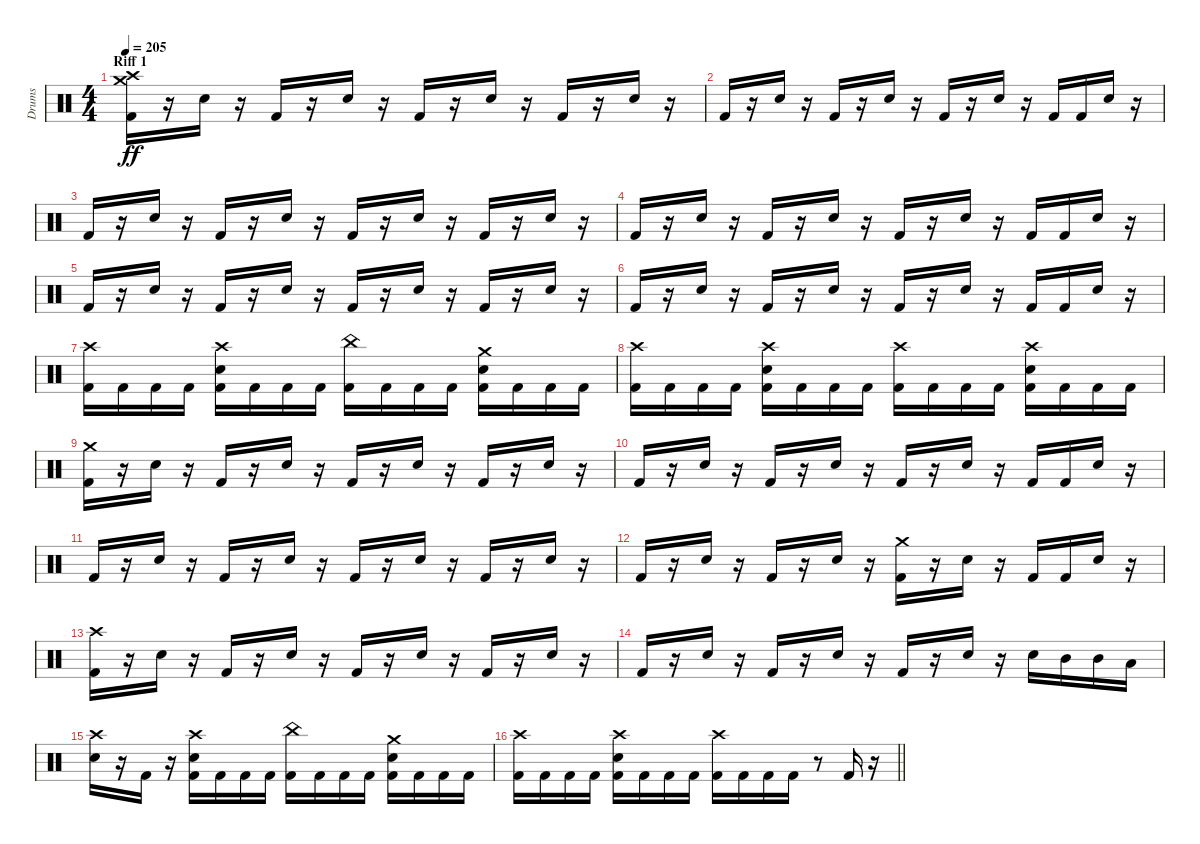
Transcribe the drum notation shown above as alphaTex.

\track ("Drums" "Drums") {instrument percussion}
\staff {score}
\articulation defaults
\ts (4 4)
\section ("" "Riff 1")
\tempo 205
\clef neutral
\ks c
("Crash high (hit)" "Crash medium (hit)" "Kick (hit) 2").16{dy ff} r.16 "Snare (hit) 2".16 r.16 "Kick (hit) 2".16 r.16 "Snare (hit) 2".16 r.16 "Kick (hit) 2".16 r.16 "Snare (hit) 2".16 r.16 "Kick (hit) 2".16 r.16 "Snare (hit) 2".16 r.16 |
"Kick (hit) 2".16 r.16 "Snare (hit) 2".16 r.16 "Kick (hit) 2".16 r.16 "Snare (hit) 2".16 r.16 "Kick (hit) 2".16 r.16 "Snare (hit) 2".16 r.16 "Kick (hit) 2".16 "Kick (hit) 2".16 "Snare (hit) 2".16 r.16 |
"Kick (hit) 2".16 r.16 "Snare (hit) 2".16 r.16 "Kick (hit) 2".16 r.16 "Snare (hit) 2".16 r.16 "Kick (hit) 2".16 r.16 "Snare (hit) 2".16 r.16 "Kick (hit) 2".16 r.16 "Snare (hit) 2".16 r.16 |
"Kick (hit) 2".16 r.16 "Snare (hit) 2".16 r.16 "Kick (hit) 2".16 r.16 "Snare (hit) 2".16 r.16 "Kick (hit) 2".16 r.16 "Snare (hit) 2".16 r.16 "Kick (hit) 2".16 "Kick (hit) 2".16 "Snare (hit) 2".16 r.16 |
"Kick (hit) 2".16 r.16 "Snare (hit) 2".16 r.16 "Kick (hit) 2".16 r.16 "Snare (hit) 2".16 r.16 "Kick (hit) 2".16 r.16 "Snare (hit) 2".16 r.16 "Kick (hit) 2".16 r.16 "Snare (hit) 2".16 r.16 |
"Kick (hit) 2".16 r.16 "Snare (hit) 2".16 r.16 "Kick (hit) 2".16 r.16 "Snare (hit) 2".16 r.16 "Kick (hit) 2".16 r.16 "Snare (hit) 2".16 r.16 "Kick (hit) 2".16 "Kick (hit) 2".16 "Snare (hit) 2".16 r.16 |
("Crash high (hit)" "Kick (hit) 2").16 "Kick (hit) 2".16 "Kick (hit) 2".16 "Kick (hit) 2".16 ("Crash high (hit)" "Kick (hit) 2" "Snare (hit) 2").16 "Kick (hit) 2".16 "Kick (hit) 2".16 "Kick (hit) 2".16 ("China (hit)" "Kick (hit) 2").16 "Kick (hit) 2".16 "Kick (hit) 2".16 "Kick (hit) 2".16 ("Crash medium (hit)" "Kick (hit) 2" "Snare (hit) 2").16 "Kick (hit) 2".16 "Kick (hit) 2".16 "Kick (hit) 2".16 |
("Crash high (hit)" "Kick (hit) 2").16 "Kick (hit) 2".16 "Kick (hit) 2".16 "Kick (hit) 2".16 ("Crash high (hit)" "Kick (hit) 2" "Snare (hit) 2").16 "Kick (hit) 2".16 "Kick (hit) 2".16 "Kick (hit) 2".16 ("Crash high (hit)" "Kick (hit) 2").16 "Kick (hit) 2".16 "Kick (hit) 2".16 "Kick (hit) 2".16 ("Crash high (hit)" "Kick (hit) 2" "Snare (hit) 2").16 "Kick (hit) 2".16 "Kick (hit) 2".16 "Kick (hit) 2".16 |
("Crash medium (hit)" "Kick (hit) 2").16 r.16 "Snare (hit) 2".16 r.16 "Kick (hit) 2".16 r.16 "Snare (hit) 2".16 r.16 "Kick (hit) 2".16 r.16 "Snare (hit) 2".16 r.16 "Kick (hit) 2".16 r.16 "Snare (hit) 2".16 r.16 |
"Kick (hit) 2".16 r.16 "Snare (hit) 2".16 r.16 "Kick (hit) 2".16 r.16 "Snare (hit) 2".16 r.16 "Kick (hit) 2".16 r.16 "Snare (hit) 2".16 r.16 "Kick (hit) 2".16 "Kick (hit) 2".16 "Snare (hit) 2".16 r.16 |
"Kick (hit) 2".16 r.16 "Snare (hit) 2".16 r.16 "Kick (hit) 2".16 r.16 "Snare (hit) 2".16 r.16 "Kick (hit) 2".16 r.16 "Snare (hit) 2".16 r.16 "Kick (hit) 2".16 r.16 "Snare (hit) 2".16 r.16 |
"Kick (hit) 2".16 r.16 "Snare (hit) 2".16 r.16 "Kick (hit) 2".16 r.16 "Snare (hit) 2".16 r.16 ("Crash medium (hit)" "Kick (hit) 2").16 r.16 "Snare (hit) 2".16 r.16 "Kick (hit) 2".16 "Kick (hit) 2".16 "Snare (hit) 2".16 r.16 |
("Crash high (hit)" "Kick (hit) 2").16 r.16 "Snare (hit) 2".16 r.16 "Kick (hit) 2".16 r.16 "Snare (hit) 2".16 r.16 "Kick (hit) 2".16 r.16 "Snare (hit) 2".16 r.16 "Kick (hit) 2".16 r.16 "Snare (hit) 2".16 r.16 |
"Kick (hit) 2".16 r.16 "Snare (hit) 2".16 r.16 "Kick (hit) 2".16 r.16 "Snare (hit) 2".16 r.16 "Kick (hit) 2".16 r.16 "Snare (hit) 2".16 r.16 "Snare (hit) 2".16 "Mid Tom (hit)".16 "Mid Tom (hit)".16 "Low Tom (hit)".16 |
("Crash high (hit)" "Snare (hit) 2").16 r.16 "Kick (hit) 2".16 r.16 ("Crash high (hit)" "Kick (hit) 2" "Snare (hit) 2").16 "Kick (hit) 2".16 "Kick (hit) 2".16 "Kick (hit) 2".16 ("China (hit)" "Kick (hit) 2").16 "Kick (hit) 2".16 "Kick (hit) 2".16 "Kick (hit) 2".16 ("Crash medium (hit)" "Kick (hit) 2" "Snare (hit) 2").16 "Kick (hit) 2".16 "Kick (hit) 2".16 "Kick (hit) 2".16 |
\barLineRight lightlight
("Crash high (hit)" "Kick (hit) 2").16 "Kick (hit) 2".16 "Kick (hit) 2".16 "Kick (hit) 2".16 ("Crash high (hit)" "Kick (hit) 2" "Snare (hit) 2").16 "Kick (hit) 2".16 "Kick (hit) 2".16 "Kick (hit) 2".16 ("Crash high (hit)" "Kick (hit) 2").16 "Kick (hit) 2".16 "Kick (hit) 2".16 "Kick (hit) 2".16 r.8 "Kick (hit) 2".16 r.16
